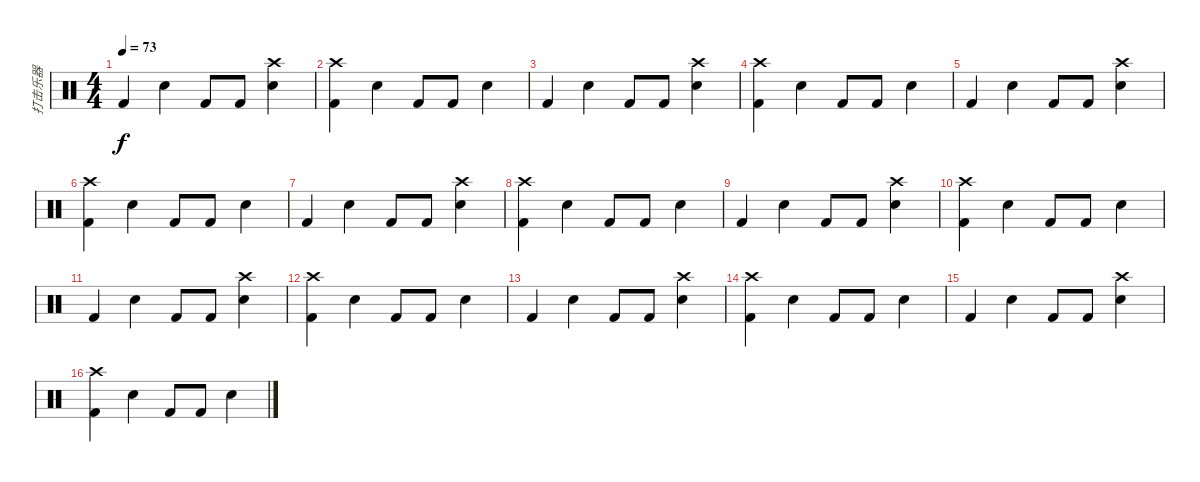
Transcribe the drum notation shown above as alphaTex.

\track ("打击乐器" "打击乐器") {instrument percussion}
\staff {score}
\articulation defaults
\ts (4 4)
\tempo 73
\clef neutral
\ks c "Kick (hit) 2".4{dy f} "Snare (hit) 2".4 "Kick (hit) 2".8 "Kick (hit) 2".8
("Snare (hit) 2" "Crash high (hit)").4 |
("Kick (hit) 2" "Crash high (hit)").4 "Snare (hit) 2".4 "Kick (hit) 2".8 "Kick (hit) 2".8 "Snare (hit) 2".4 |
"Kick (hit) 2".4 "Snare (hit) 2".4 "Kick (hit) 2".8 "Kick (hit) 2".8 ("Snare (hit) 2" "Crash high (hit)").4 |
("Kick (hit) 2" "Crash high (hit)").4 "Snare (hit) 2".4 "Kick (hit) 2".8 "Kick (hit) 2".8 "Snare (hit) 2".4 |
"Kick (hit) 2".4 "Snare (hit) 2".4 "Kick (hit) 2".8 "Kick (hit) 2".8 ("Snare (hit) 2" "Crash high (hit)").4 |
("Kick (hit) 2" "Crash high (hit)").4 "Snare (hit) 2".4 "Kick (hit) 2".8 "Kick (hit) 2".8 "Snare (hit) 2".4 |
"Kick (hit) 2".4 "Snare (hit) 2".4 "Kick (hit) 2".8 "Kick (hit) 2".8 ("Snare (hit) 2" "Crash high (hit)").4 |
("Kick (hit) 2" "Crash high (hit)").4 "Snare (hit) 2".4 "Kick (hit) 2".8 "Kick (hit) 2".8 "Snare (hit) 2".4 |
"Kick (hit) 2".4 "Snare (hit) 2".4 "Kick (hit) 2".8 "Kick (hit) 2".8 ("Snare (hit) 2" "Crash high (hit)").4 |
("Kick (hit) 2" "Crash high (hit)").4 "Snare (hit) 2".4 "Kick (hit) 2".8 "Kick (hit) 2".8 "Snare (hit) 2".4 |
"Kick (hit) 2".4 "Snare (hit) 2".4 "Kick (hit) 2".8 "Kick (hit) 2".8 ("Snare (hit) 2" "Crash high (hit)").4 |
("Kick (hit) 2" "Crash high (hit)").4 "Snare (hit) 2".4 "Kick (hit) 2".8 "Kick (hit) 2".8 "Snare (hit) 2".4 |
"Kick (hit) 2".4 "Snare (hit) 2".4 "Kick (hit) 2".8 "Kick (hit) 2".8 ("Snare (hit) 2" "Crash high (hit)").4 |
("Kick (hit) 2" "Crash high (hit)").4 "Snare (hit) 2".4 "Kick (hit) 2".8 "Kick (hit) 2".8 "Snare (hit) 2".4 |
"Kick (hit) 2".4 "Snare (hit) 2".4 "Kick (hit) 2".8 "Kick (hit) 2".8 ("Snare (hit) 2" "Crash high (hit)").4 |
("Kick (hit) 2" "Crash high (hit)").4 "Snare (hit) 2".4 "Kick (hit) 2".8 "Kick (hit) 2".8 "Snare (hit) 2".4
